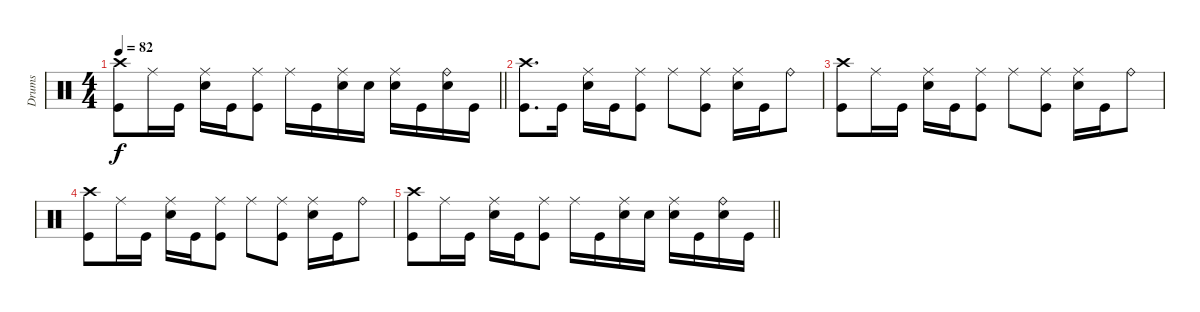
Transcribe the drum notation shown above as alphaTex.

\track ("Drums" "Drums") {instrument percussion}
\staff
\articulation defaults
\ts (4 4)
\tempo 82
\clef neutral
\barLineRight lightlight
\ks c
("Crash high (hit)" "Kick (hit)").8{dy f} "Ride (middle)".16 "Kick (hit)".16 ("Ride (middle)" "Electric Snare (hit)").16 "Kick (hit)".16 ("Ride (middle)" "Kick (hit)").8 "Ride (middle)".16 "Kick (hit)".16 ("Ride (middle)" "Electric Snare (hit)").16 "Electric Snare (hit)".16 ("Ride (middle)" "Electric Snare (hit)").16 "Kick (hit)".16 ("Ride (bell)" "Electric Snare (hit)").16 "Kick (hit)".16 |
("Crash high (hit)" "Kick (hit)").8{d} "Kick (hit)".16 ("Ride (middle)" "Electric Snare (hit)").16 "Kick (hit)".16 ("Ride (middle)" "Kick (hit)").8 "Ride (middle)".8 ("Ride (middle)" "Kick (hit)").8 ("Ride (middle)" "Electric Snare (hit)").16 "Kick (hit)".16 "Ride (bell)".8 |
("Crash high (hit)" "Kick (hit)").8 "Ride (middle)".16 "Kick (hit)".16 ("Ride (middle)" "Electric Snare (hit)").16 "Kick (hit)".16 ("Ride (middle)" "Kick (hit)").8 "Ride (middle)".8 ("Ride (middle)" "Kick (hit)").8 ("Ride (middle)" "Electric Snare (hit)").16 "Kick (hit)".16 "Ride (bell)".8 |
("Crash high (hit)" "Kick (hit)").8 "Ride (middle)".16 "Kick (hit)".16 ("Ride (middle)" "Electric Snare (hit)").16 "Kick (hit)".16 ("Ride (middle)" "Kick (hit)").8 "Ride (middle)".8 ("Ride (middle)" "Kick (hit)").8 ("Ride (middle)" "Electric Snare (hit)").16 "Kick (hit)".16 "Ride (bell)".8 |
\barLineRight lightlight
("Crash high (hit)" "Kick (hit)").8 "Ride (middle)".16 "Kick (hit)".16 ("Ride (middle)" "Electric Snare (hit)").16 "Kick (hit)".16 ("Ride (middle)" "Kick (hit)").8 "Ride (middle)".16 "Kick (hit)".16 ("Ride (middle)" "Electric Snare (hit)").16 "Electric Snare (hit)".16 ("Ride (middle)" "Electric Snare (hit)").16 "Kick (hit)".16 ("Ride (bell)" "Electric Snare (hit)").16 "Kick (hit)".16
